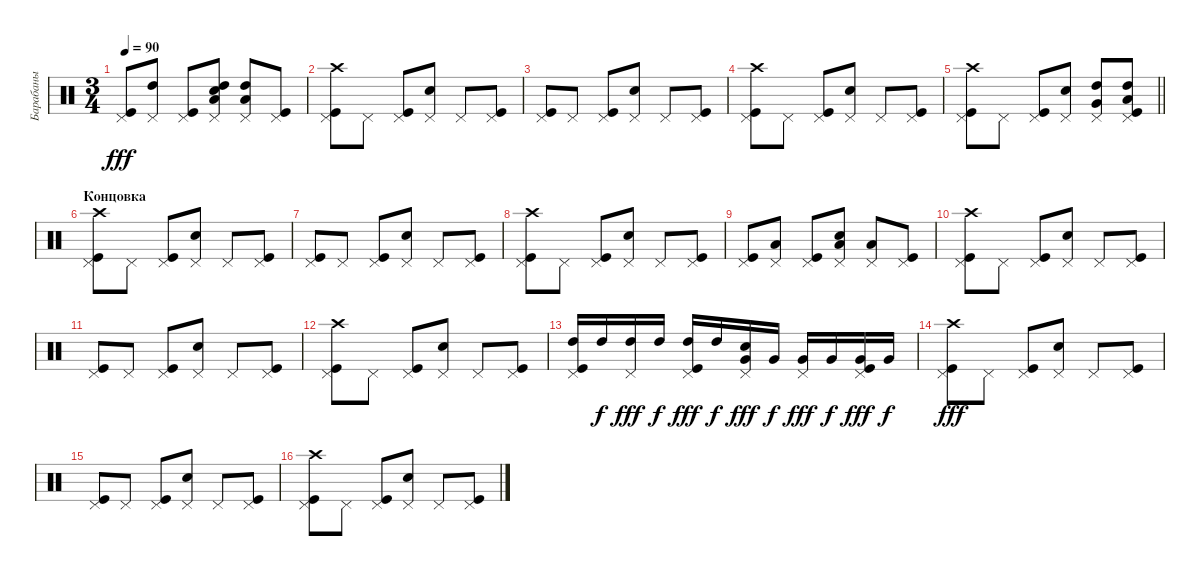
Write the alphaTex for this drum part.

\track ("Барабаны" "Барабаны") {instrument percussion}
\staff {score}
\articulation defaults
\ts (3 4)
\tempo 90
\clef neutral
\ks c
("Kick (hit)" "Pedal Hi-Hat (hit)").8{dy fff} ("Pedal Hi-Hat (hit)" "High Tom (hit)").8 ("Kick (hit)" "Pedal Hi-Hat (hit)").8 ("Snare (hit) 2" "Pedal Hi-Hat (hit)" "Low Floor Tom (hit)" "High Tom (hit)").8 ("Pedal Hi-Hat (hit)" "Low Floor Tom (hit)" "High Tom (hit)").8 ("Kick (hit)" "Pedal Hi-Hat (hit)").8 |
("Kick (hit)" "Pedal Hi-Hat (hit)" "Crash high (hit)").8 "Pedal Hi-Hat (hit)".8 ("Kick (hit)" "Pedal Hi-Hat (hit)").8 ("Snare (hit) 2" "Pedal Hi-Hat (hit)").8 "Pedal Hi-Hat (hit)".8 ("Kick (hit)" "Pedal Hi-Hat (hit)").8 |
("Kick (hit)" "Pedal Hi-Hat (hit)").8 "Pedal Hi-Hat (hit)".8 ("Kick (hit)" "Pedal Hi-Hat (hit)").8 ("Snare (hit) 2" "Pedal Hi-Hat (hit)").8 "Pedal Hi-Hat (hit)".8 ("Kick (hit)" "Pedal Hi-Hat (hit)").8 |
("Kick (hit)" "Pedal Hi-Hat (hit)" "Crash high (hit)").8 "Pedal Hi-Hat (hit)".8 ("Kick (hit)" "Pedal Hi-Hat (hit)").8 ("Snare (hit) 2" "Pedal Hi-Hat (hit)").8 "Pedal Hi-Hat (hit)".8 ("Kick (hit)" "Pedal Hi-Hat (hit)").8 |
\barLineRight lightlight
("Kick (hit)" "Pedal Hi-Hat (hit)" "Crash high (hit)").8 "Pedal Hi-Hat (hit)".8 ("Kick (hit)" "Pedal Hi-Hat (hit)").8 ("Snare (hit) 2" "Pedal Hi-Hat (hit)").8 ("Pedal Hi-Hat (hit)" "Very Low Tom (hit)" "High Tom (hit)").8 ("Kick (hit)" "Pedal Hi-Hat (hit)" "Low Floor Tom (hit)" "High Tom (hit)").8 |
\section ("" "Концовка")
("Kick (hit)" "Pedal Hi-Hat (hit)" "Crash high (hit)").8 "Pedal Hi-Hat (hit)".8 ("Kick (hit)" "Pedal Hi-Hat (hit)").8 ("Snare (hit) 2" "Pedal Hi-Hat (hit)").8 "Pedal Hi-Hat (hit)".8 ("Kick (hit)" "Pedal Hi-Hat (hit)").8 |
("Kick (hit)" "Pedal Hi-Hat (hit)").8 "Pedal Hi-Hat (hit)".8 ("Kick (hit)" "Pedal Hi-Hat (hit)").8 ("Snare (hit) 2" "Pedal Hi-Hat (hit)").8 "Pedal Hi-Hat (hit)".8 ("Kick (hit)" "Pedal Hi-Hat (hit)").8 |
("Kick (hit)" "Pedal Hi-Hat (hit)" "Crash high (hit)").8 "Pedal Hi-Hat (hit)".8 ("Kick (hit)" "Pedal Hi-Hat (hit)").8 ("Snare (hit) 2" "Pedal Hi-Hat (hit)").8 "Pedal Hi-Hat (hit)".8 ("Kick (hit)" "Pedal Hi-Hat (hit)").8 |
("Kick (hit)" "Pedal Hi-Hat (hit)").8 ("Pedal Hi-Hat (hit)" "Low Tom (hit)").8 ("Kick (hit)" "Pedal Hi-Hat (hit)").8 ("Snare (hit) 2" "Pedal Hi-Hat (hit)" "Low Floor Tom (hit)").8 ("Pedal Hi-Hat (hit)" "Low Floor Tom (hit)").8 ("Kick (hit)" "Pedal Hi-Hat (hit)").8 |
("Kick (hit)" "Pedal Hi-Hat (hit)" "Crash high (hit)").8 "Pedal Hi-Hat (hit)".8 ("Kick (hit)" "Pedal Hi-Hat (hit)").8 ("Snare (hit) 2" "Pedal Hi-Hat (hit)").8 "Pedal Hi-Hat (hit)".8 ("Kick (hit)" "Pedal Hi-Hat (hit)").8 |
("Kick (hit)" "Pedal Hi-Hat (hit)").8 "Pedal Hi-Hat (hit)".8 ("Kick (hit)" "Pedal Hi-Hat (hit)").8 ("Snare (hit) 2" "Pedal Hi-Hat (hit)").8 "Pedal Hi-Hat (hit)".8 ("Kick (hit)" "Pedal Hi-Hat (hit)").8 |
("Kick (hit)" "Pedal Hi-Hat (hit)" "Crash high (hit)").8 "Pedal Hi-Hat (hit)".8 ("Kick (hit)" "Pedal Hi-Hat (hit)").8 ("Snare (hit) 2" "Pedal Hi-Hat (hit)").8 "Pedal Hi-Hat (hit)".8 ("Kick (hit)" "Pedal Hi-Hat (hit)").8 |
("Kick (hit)" "Pedal Hi-Hat (hit)" "High Tom (hit)").16 "High Tom (hit)".16{dy f} ("Pedal Hi-Hat (hit)" "High Tom (hit)").16{dy fff} "High Tom (hit)".16{dy f} ("Kick (hit)" "Pedal Hi-Hat (hit)" "High Tom (hit)").16{dy fff} "High Tom (hit)".16{dy f} ("Snare (hit) 2" "Pedal Hi-Hat (hit)" "Very Low Tom (hit)").16{dy fff} "Very Low Tom (hit)".16{dy f} ("Pedal Hi-Hat (hit)" "Very Low Tom (hit)").16{dy fff} "Very Low Tom (hit)".16{dy f} ("Kick (hit)" "Pedal Hi-Hat (hit)" "Very Low Tom (hit)").16{dy fff} "Very Low Tom (hit)".16{dy f} |
("Kick (hit)" "Pedal Hi-Hat (hit)" "Crash high (hit)").8{dy fff} "Pedal Hi-Hat (hit)".8 ("Kick (hit)" "Pedal Hi-Hat (hit)").8 ("Snare (hit) 2" "Pedal Hi-Hat (hit)").8 "Pedal Hi-Hat (hit)".8 ("Kick (hit)" "Pedal Hi-Hat (hit)").8 |
("Kick (hit)" "Pedal Hi-Hat (hit)").8 "Pedal Hi-Hat (hit)".8 ("Kick (hit)" "Pedal Hi-Hat (hit)").8 ("Snare (hit) 2" "Pedal Hi-Hat (hit)").8 "Pedal Hi-Hat (hit)".8 ("Kick (hit)" "Pedal Hi-Hat (hit)").8 |
("Kick (hit)" "Pedal Hi-Hat (hit)" "Crash high (hit)").8 "Pedal Hi-Hat (hit)".8 ("Kick (hit)" "Pedal Hi-Hat (hit)").8 ("Snare (hit) 2" "Pedal Hi-Hat (hit)").8 "Pedal Hi-Hat (hit)".8 ("Kick (hit)" "Pedal Hi-Hat (hit)").8
